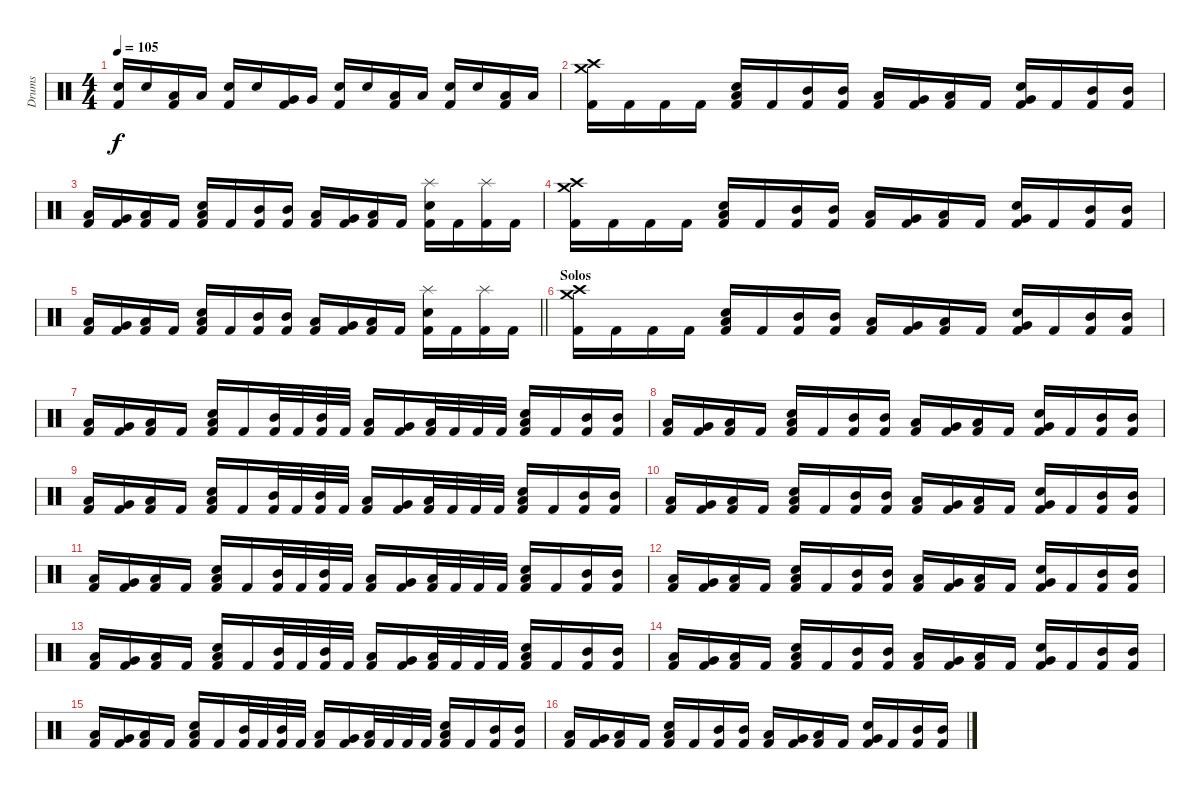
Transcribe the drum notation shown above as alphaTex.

\track ("Drums" "Drums") {instrument percussion}
\staff {score}
\articulation defaults
\ts (4 4)
\tempo 105
\clef neutral
\ks c
("Kick (hit) 2" "Snare (hit) 2").16{dy f} "Snare (hit) 2".16 ("Kick (hit) 2" "Low Tom (hit)").16 "Low Tom (hit)".16 ("Kick (hit) 2" "Snare (hit) 2").16 "Snare (hit) 2".16 ("Kick (hit) 2" "Very Low Tom (hit)").16 "Very Low Tom (hit)".16 ("Kick (hit) 2" "Snare (hit) 2").16 "Snare (hit) 2".16 ("Kick (hit) 2" "Low Tom (hit)").16 "Low Tom (hit)".16 ("Kick (hit) 2" "Snare (hit) 2").16 "Snare (hit) 2".16 ("Kick (hit) 2" "Low Floor Tom (hit)").16 "Low Floor Tom (hit)".16 |
("Kick (hit) 2" "Crash high (hit)" "Crash medium (hit)").16 "Kick (hit) 2".16 "Kick (hit) 2".16 "Kick (hit) 2".16 ("Kick (hit) 2" "Snare (hit) 2" "Low Tom (hit)").16 "Kick (hit) 2".16 ("Kick (hit) 2" "Mid Tom (hit)").16 ("Kick (hit) 2" "Mid Tom (hit)").16 ("Kick (hit) 2" "Low Tom (hit)").16 ("Kick (hit) 2" "Very Low Tom (hit)").16 ("Kick (hit) 2" "Low Floor Tom (hit)").16 "Kick (hit) 2".16 ("Kick (hit) 2" "Snare (hit) 2" "Very Low Tom (hit)").16 "Kick (hit) 2".16 ("Kick (hit) 2" "Mid Tom (hit)").16 ("Kick (hit) 2" "Mid Tom (hit)").16 |
("Kick (hit) 2" "Low Tom (hit)").16 ("Kick (hit) 2" "Very Low Tom (hit)").16 ("Kick (hit) 2" "Low Floor Tom (hit)").16 "Kick (hit) 2".16 ("Kick (hit) 2" "Snare (hit) 2" "Low Tom (hit)").16 "Kick (hit) 2".16 ("Kick (hit) 2" "Mid Tom (hit)").16 ("Kick (hit) 2" "Mid Tom (hit)").16 ("Kick (hit) 2" "Low Tom (hit)").16 ("Kick (hit) 2" "Very Low Tom (hit)").16 ("Kick (hit) 2" "Low Floor Tom (hit)").16 "Kick (hit) 2".16 ("Kick (hit) 2" "Snare (hit) 2" "Splash (hit)").16 "Kick (hit) 2".16 ("Kick (hit) 2" "Splash (hit)").16 "Kick (hit) 2".16 |
("Kick (hit) 2" "Crash high (hit)" "Crash medium (hit)").16 "Kick (hit) 2".16 "Kick (hit) 2".16 "Kick (hit) 2".16 ("Kick (hit) 2" "Snare (hit) 2" "Low Tom (hit)").16 "Kick (hit) 2".16 ("Kick (hit) 2" "Mid Tom (hit)").16 ("Kick (hit) 2" "Mid Tom (hit)").16 ("Kick (hit) 2" "Low Tom (hit)").16 ("Kick (hit) 2" "Very Low Tom (hit)").16 ("Kick (hit) 2" "Low Floor Tom (hit)").16 "Kick (hit) 2".16 ("Kick (hit) 2" "Snare (hit) 2" "Very Low Tom (hit)").16 "Kick (hit) 2".16 ("Kick (hit) 2" "Mid Tom (hit)").16 ("Kick (hit) 2" "Mid Tom (hit)").16 |
\barLineRight lightlight
("Kick (hit) 2" "Low Tom (hit)").16 ("Kick (hit) 2" "Very Low Tom (hit)").16 ("Kick (hit) 2" "Low Floor Tom (hit)").16 "Kick (hit) 2".16 ("Kick (hit) 2" "Snare (hit) 2" "Low Tom (hit)").16 "Kick (hit) 2".16 ("Kick (hit) 2" "Mid Tom (hit)").16 ("Kick (hit) 2" "Mid Tom (hit)").16 ("Kick (hit) 2" "Low Tom (hit)").16 ("Kick (hit) 2" "Very Low Tom (hit)").16 ("Kick (hit) 2" "Low Floor Tom (hit)").16 "Kick (hit) 2".16 ("Kick (hit) 2" "Snare (hit) 2" "Splash (hit)").16 "Kick (hit) 2".16 ("Kick (hit) 2" "Splash (hit)").16 "Kick (hit) 2".16 |
\section ("" "Solos")
("Kick (hit) 2" "Crash high (hit)" "Crash medium (hit)").16 "Kick (hit) 2".16 "Kick (hit) 2".16 "Kick (hit) 2".16 ("Kick (hit) 2" "Snare (hit) 2" "Low Tom (hit)").16 "Kick (hit) 2".16 ("Kick (hit) 2" "Mid Tom (hit)").16 ("Kick (hit) 2" "Mid Tom (hit)").16 ("Kick (hit) 2" "Low Tom (hit)").16 ("Kick (hit) 2" "Very Low Tom (hit)").16 ("Kick (hit) 2" "Low Floor Tom (hit)").16 "Kick (hit) 2".16 ("Kick (hit) 2" "Snare (hit) 2" "Very Low Tom (hit)").16 "Kick (hit) 2".16 ("Kick (hit) 2" "Mid Tom (hit)").16 ("Kick (hit) 2" "Mid Tom (hit)").16 |
("Kick (hit) 2" "Low Tom (hit)").16 ("Kick (hit) 2" "Very Low Tom (hit)").16 ("Kick (hit) 2" "Low Floor Tom (hit)").16 "Kick (hit) 2".16 ("Kick (hit) 2" "Snare (hit) 2" "Low Tom (hit)").16 "Kick (hit) 2".16 ("Kick (hit) 2" "Mid Tom (hit)").32 "Kick (hit) 2".32 ("Kick (hit) 2" "Mid Tom (hit)").32 "Kick (hit) 2".32 ("Kick (hit) 2" "Low Tom (hit)").16 ("Kick (hit) 2" "Very Low Tom (hit)").16 ("Kick (hit) 2" "Low Floor Tom (hit)").32 "Kick (hit) 2".32 "Kick (hit) 2".32 "Kick (hit) 2".32 ("Kick (hit) 2" "Snare (hit) 2" "Low Tom (hit)").16 "Kick (hit) 2".16 ("Kick (hit) 2" "Mid Tom (hit)").16 ("Kick (hit) 2" "Mid Tom (hit)").16 |
("Kick (hit) 2" "Low Tom (hit)").16 ("Kick (hit) 2" "Very Low Tom (hit)").16 ("Kick (hit) 2" "Low Floor Tom (hit)").16 "Kick (hit) 2".16 ("Kick (hit) 2" "Snare (hit) 2" "Low Tom (hit)").16 "Kick (hit) 2".16 ("Kick (hit) 2" "Mid Tom (hit)").16 ("Kick (hit) 2" "Mid Tom (hit)").16 ("Kick (hit) 2" "Low Tom (hit)").16 ("Kick (hit) 2" "Very Low Tom (hit)").16 ("Kick (hit) 2" "Low Floor Tom (hit)").16 "Kick (hit) 2".16 ("Kick (hit) 2" "Snare (hit) 2" "Very Low Tom (hit)").16 "Kick (hit) 2".16 ("Kick (hit) 2" "Mid Tom (hit)").16 ("Kick (hit) 2" "Mid Tom (hit)").16 |
("Kick (hit) 2" "Low Tom (hit)").16 ("Kick (hit) 2" "Very Low Tom (hit)").16 ("Kick (hit) 2" "Low Floor Tom (hit)").16 "Kick (hit) 2".16 ("Kick (hit) 2" "Snare (hit) 2" "Low Tom (hit)").16 "Kick (hit) 2".16 ("Kick (hit) 2" "Mid Tom (hit)").32 "Kick (hit) 2".32 ("Kick (hit) 2" "Mid Tom (hit)").32 "Kick (hit) 2".32 ("Kick (hit) 2" "Low Tom (hit)").16 ("Kick (hit) 2" "Very Low Tom (hit)").16 ("Kick (hit) 2" "Low Floor Tom (hit)").32 "Kick (hit) 2".32 "Kick (hit) 2".32 "Kick (hit) 2".32 ("Kick (hit) 2" "Snare (hit) 2" "Low Tom (hit)").16 "Kick (hit) 2".16 ("Kick (hit) 2" "Mid Tom (hit)").16 ("Kick (hit) 2" "Mid Tom (hit)").16 |
("Kick (hit) 2" "Low Tom (hit)").16 ("Kick (hit) 2" "Very Low Tom (hit)").16 ("Kick (hit) 2" "Low Floor Tom (hit)").16 "Kick (hit) 2".16 ("Kick (hit) 2" "Snare (hit) 2" "Low Tom (hit)").16 "Kick (hit) 2".16 ("Kick (hit) 2" "Mid Tom (hit)").16 ("Kick (hit) 2" "Mid Tom (hit)").16 ("Kick (hit) 2" "Low Tom (hit)").16 ("Kick (hit) 2" "Very Low Tom (hit)").16 ("Kick (hit) 2" "Low Floor Tom (hit)").16 "Kick (hit) 2".16 ("Kick (hit) 2" "Snare (hit) 2" "Very Low Tom (hit)").16 "Kick (hit) 2".16 ("Kick (hit) 2" "Mid Tom (hit)").16 ("Kick (hit) 2" "Mid Tom (hit)").16 |
("Kick (hit) 2" "Low Tom (hit)").16 ("Kick (hit) 2" "Very Low Tom (hit)").16 ("Kick (hit) 2" "Low Floor Tom (hit)").16 "Kick (hit) 2".16 ("Kick (hit) 2" "Snare (hit) 2" "Low Tom (hit)").16 "Kick (hit) 2".16 ("Kick (hit) 2" "Mid Tom (hit)").32 "Kick (hit) 2".32 ("Kick (hit) 2" "Mid Tom (hit)").32 "Kick (hit) 2".32 ("Kick (hit) 2" "Low Tom (hit)").16 ("Kick (hit) 2" "Very Low Tom (hit)").16 ("Kick (hit) 2" "Low Floor Tom (hit)").32 "Kick (hit) 2".32 "Kick (hit) 2".32 "Kick (hit) 2".32 ("Kick (hit) 2" "Snare (hit) 2" "Low Tom (hit)").16 "Kick (hit) 2".16 ("Kick (hit) 2" "Mid Tom (hit)").16 ("Kick (hit) 2" "Mid Tom (hit)").16 |
("Kick (hit) 2" "Low Tom (hit)").16 ("Kick (hit) 2" "Very Low Tom (hit)").16 ("Kick (hit) 2" "Low Floor Tom (hit)").16 "Kick (hit) 2".16 ("Kick (hit) 2" "Snare (hit) 2" "Low Tom (hit)").16 "Kick (hit) 2".16 ("Kick (hit) 2" "Mid Tom (hit)").16 ("Kick (hit) 2" "Mid Tom (hit)").16 ("Kick (hit) 2" "Low Tom (hit)").16 ("Kick (hit) 2" "Very Low Tom (hit)").16 ("Kick (hit) 2" "Low Floor Tom (hit)").16 "Kick (hit) 2".16 ("Kick (hit) 2" "Snare (hit) 2" "Very Low Tom (hit)").16 "Kick (hit) 2".16 ("Kick (hit) 2" "Mid Tom (hit)").16 ("Kick (hit) 2" "Mid Tom (hit)").16 |
("Kick (hit) 2" "Low Tom (hit)").16 ("Kick (hit) 2" "Very Low Tom (hit)").16 ("Kick (hit) 2" "Low Floor Tom (hit)").16 "Kick (hit) 2".16 ("Kick (hit) 2" "Snare (hit) 2" "Low Tom (hit)").16 "Kick (hit) 2".16 ("Kick (hit) 2" "Mid Tom (hit)").32 "Kick (hit) 2".32 ("Kick (hit) 2" "Mid Tom (hit)").32 "Kick (hit) 2".32 ("Kick (hit) 2" "Low Tom (hit)").16 ("Kick (hit) 2" "Very Low Tom (hit)").16 ("Kick (hit) 2" "Low Floor Tom (hit)").32 "Kick (hit) 2".32 "Kick (hit) 2".32 "Kick (hit) 2".32 ("Kick (hit) 2" "Snare (hit) 2" "Low Tom (hit)").16 "Kick (hit) 2".16 ("Kick (hit) 2" "Mid Tom (hit)").16 ("Kick (hit) 2" "Mid Tom (hit)").16 |
("Kick (hit) 2" "Low Tom (hit)").16 ("Kick (hit) 2" "Very Low Tom (hit)").16 ("Kick (hit) 2" "Low Floor Tom (hit)").16 "Kick (hit) 2".16 ("Kick (hit) 2" "Snare (hit) 2" "Low Tom (hit)").16 "Kick (hit) 2".16 ("Kick (hit) 2" "Mid Tom (hit)").16 ("Kick (hit) 2" "Mid Tom (hit)").16 ("Kick (hit) 2" "Low Tom (hit)").16 ("Kick (hit) 2" "Very Low Tom (hit)").16 ("Kick (hit) 2" "Low Floor Tom (hit)").16 "Kick (hit) 2".16 ("Kick (hit) 2" "Snare (hit) 2" "Very Low Tom (hit)").16 "Kick (hit) 2".16 ("Kick (hit) 2" "Mid Tom (hit)").16 ("Kick (hit) 2" "Mid Tom (hit)").16 |
("Kick (hit) 2" "Low Tom (hit)").16 ("Kick (hit) 2" "Very Low Tom (hit)").16 ("Kick (hit) 2" "Low Floor Tom (hit)").16 "Kick (hit) 2".16 ("Kick (hit) 2" "Snare (hit) 2" "Low Tom (hit)").16 "Kick (hit) 2".16 ("Kick (hit) 2" "Mid Tom (hit)").32 "Kick (hit) 2".32 ("Kick (hit) 2" "Mid Tom (hit)").32 "Kick (hit) 2".32 ("Kick (hit) 2" "Low Tom (hit)").16 ("Kick (hit) 2" "Very Low Tom (hit)").16 ("Kick (hit) 2" "Low Floor Tom (hit)").32 "Kick (hit) 2".32 "Kick (hit) 2".32 "Kick (hit) 2".32 ("Kick (hit) 2" "Snare (hit) 2" "Low Tom (hit)").16 "Kick (hit) 2".16 ("Kick (hit) 2" "Mid Tom (hit)").16 ("Kick (hit) 2" "Mid Tom (hit)").16 |
("Kick (hit) 2" "Low Tom (hit)").16 ("Kick (hit) 2" "Very Low Tom (hit)").16 ("Kick (hit) 2" "Low Floor Tom (hit)").16 "Kick (hit) 2".16 ("Kick (hit) 2" "Snare (hit) 2" "Low Tom (hit)").16 "Kick (hit) 2".16 ("Kick (hit) 2" "Mid Tom (hit)").16 ("Kick (hit) 2" "Mid Tom (hit)").16 ("Kick (hit) 2" "Low Tom (hit)").16 ("Kick (hit) 2" "Very Low Tom (hit)").16 ("Kick (hit) 2" "Low Floor Tom (hit)").16 "Kick (hit) 2".16 ("Kick (hit) 2" "Snare (hit) 2" "Very Low Tom (hit)").16 "Kick (hit) 2".16 ("Kick (hit) 2" "Mid Tom (hit)").16 ("Kick (hit) 2" "Mid Tom (hit)").16
